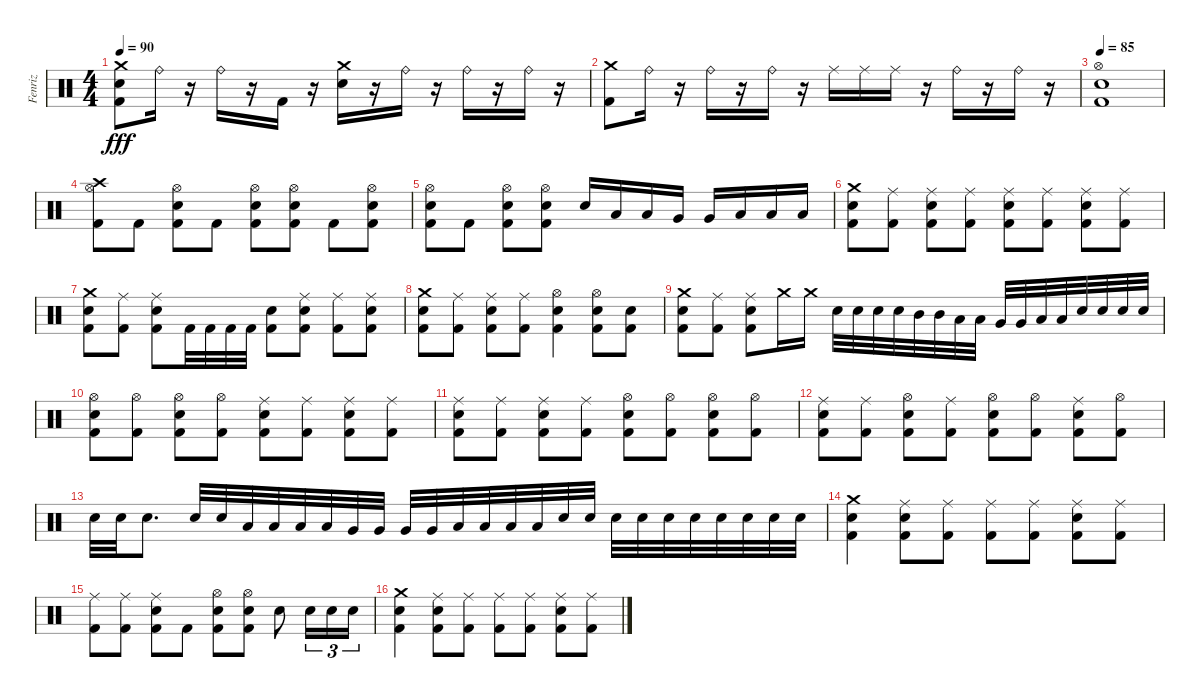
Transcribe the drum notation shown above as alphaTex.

\track ("Fenriz" "Fenriz") {instrument percussion}
\staff {score}
\articulation defaults
\ts (4 4)
\tempo 90
\clef neutral
\ks c
("Crash medium (hit)" "Snare (hit) 2" "Kick (hit) 2").8{dy fff} "Ride (bell)".16 r.16 "Ride (bell)".16 r.16 "Kick (hit) 2".16 r.16 ("Crash medium (hit)" "Electric Snare (hit)").16 r.16 "Ride (bell)".16 r.16 "Ride (bell)".16 r.16 "Ride (bell)".16 r.16 |
("Crash medium (hit)" "Kick (hit) 2").8 "Ride (bell)".16 r.16 "Ride (bell)".16 r.16 "Ride (bell)".16 r.16 "Ride (middle)".16 "Ride (middle)".16 "Ride (middle)".16 r.16 "Ride (bell)".16 r.16 "Ride (bell)".16 r.16 |
\tempo 85
("Hi-Hat (open)" "Electric Snare (hit)" "Kick (hit) 2").1 |
("Crash high (hit)" "Hi-Hat (open)" "Kick (hit) 2").8 "Kick (hit) 2".8 ("Hi-Hat (open)" "Electric Snare (hit)" "Kick (hit) 2").8 "Kick (hit) 2".8 ("Hi-Hat (open)" "Electric Snare (hit)" "Kick (hit) 2").8 ("Hi-Hat (open)" "Electric Snare (hit)" "Kick (hit) 2").8 "Kick (hit) 2".8 ("Hi-Hat (open)" "Electric Snare (hit)" "Kick (hit) 2").8 |
("Hi-Hat (open)" "Electric Snare (hit)" "Kick (hit) 2").8 "Kick (hit) 2".8 ("Hi-Hat (open)" "Electric Snare (hit)" "Kick (hit) 2").8 ("Hi-Hat (open)" "Electric Snare (hit)" "Kick (hit) 2").8 "Snare (hit) 2".16 "Low Tom (hit)".16 "Low Tom (hit)".16 "Very Low Tom (hit)".16 "Very Low Tom (hit)".16 "Low Floor Tom (hit)".16 "Low Floor Tom (hit)".16 "Low Floor Tom (hit)".16 |
("Crash medium (hit)" "Snare (hit) 2" "Kick (hit) 2").8 ("Ride (middle)" "Kick (hit) 2").8 ("Ride (middle)" "Snare (hit) 2" "Kick (hit) 2").8 ("Ride (middle)" "Kick (hit) 2").8 ("Ride (middle)" "Snare (hit) 2" "Kick (hit) 2").8 ("Ride (middle)" "Kick (hit) 2").8 ("Ride (middle)" "Snare (hit) 2" "Kick (hit) 2").8 ("Ride (middle)" "Kick (hit) 2").8 |
("Crash medium (hit)" "Snare (hit) 2" "Kick (hit) 2").8 ("Ride (middle)" "Kick (hit) 2").8 ("Ride (middle)" "Snare (hit) 2" "Kick (hit) 2").8 "Kick (hit) 2".32 "Kick (hit) 2".32 "Kick (hit) 2".32 "Kick (hit) 2".32 ("Snare (hit) 2" "Kick (hit) 2").8 ("Ride (middle)" "Snare (hit) 2" "Kick (hit) 2").8 ("Ride (middle)" "Kick (hit) 2").8 ("Ride (middle)" "Snare (hit) 2" "Kick (hit) 2").8 |
("Crash medium (hit)" "Snare (hit) 2" "Kick (hit) 2").8 ("Ride (middle)" "Kick (hit) 2").8 ("Ride (middle)" "Snare (hit) 2" "Kick (hit) 2").8 ("Ride (middle)" "Kick (hit) 2").8 ("Hi-Hat (open)" "Snare (hit) 2" "Kick (hit) 2").4 ("Hi-Hat (open)" "Snare (hit) 2" "Kick (hit) 2").8 ("Snare (hit) 2" "Kick (hit) 2").8 |
("Crash medium (hit)" "Snare (hit) 2" "Kick (hit) 2").8 ("Ride (middle)" "Kick (hit) 2").8 ("Ride (middle)" "Snare (hit) 2" "Kick (hit) 2").8 "Crash medium (hit)".16 "Crash medium (hit)".16 "Snare (hit) 2".32 "Snare (hit) 2".32 "Snare (hit) 2".32 "Snare (hit) 2".32 "Mid Tom (hit)".32 "Mid Tom (hit)".32 "Low Tom (hit)".32 "Low Tom (hit)".32 "Very Low Tom (hit)".32 "Very Low Tom (hit)".32 "Low Floor Tom (hit)".32 "Low Floor Tom (hit)".32 "Snare (hit) 2".32 "Snare (hit) 2".32 "Snare (hit) 2".32 "Snare (hit) 2".32 |
("Hi-Hat (open)" "Snare (hit) 2" "Kick (hit) 2").8 ("Hi-Hat (open)" "Kick (hit) 2").8 ("Hi-Hat (open)" "Snare (hit) 2" "Kick (hit) 2").8 ("Hi-Hat (open)" "Kick (hit) 2").8 ("Ride (middle)" "Snare (hit) 2" "Kick (hit) 2").8 ("Ride (middle)" "Kick (hit) 2").8 ("Ride (middle)" "Snare (hit) 2" "Kick (hit) 2").8 ("Ride (middle)" "Kick (hit) 2").8 |
("Ride (middle)" "Snare (hit) 2" "Kick (hit) 2").8 ("Ride (middle)" "Kick (hit) 2").8 ("Ride (middle)" "Snare (hit) 2" "Kick (hit) 2").8 ("Ride (middle)" "Kick (hit) 2").8 ("Hi-Hat (open)" "Snare (hit) 2" "Kick (hit) 2").8 ("Hi-Hat (open)" "Kick (hit) 2").8 ("Hi-Hat (open)" "Snare (hit) 2" "Kick (hit) 2").8 ("Hi-Hat (open)" "Kick (hit) 2").8 |
("Ride (middle)" "Snare (hit) 2" "Kick (hit) 2").8 ("Ride (middle)" "Kick (hit) 2").8 ("Hi-Hat (open)" "Snare (hit) 2" "Kick (hit) 2").8 ("Ride (middle)" "Kick (hit) 2").8 ("Hi-Hat (open)" "Snare (hit) 2" "Kick (hit) 2").8 ("Hi-Hat (open)" "Kick (hit) 2").8 ("Ride (middle)" "Snare (hit) 2" "Kick (hit) 2").8 ("Hi-Hat (open)" "Kick (hit) 2").8 |
"Snare (hit) 2".32 "Snare (hit) 2".32 "Snare (hit) 2".8{d} "Snare (hit) 2".32 "Snare (hit) 2".32 "Low Tom (hit)".32 "Low Tom (hit)".32 "Low Tom (hit)".32 "Low Tom (hit)".32 "Very Low Tom (hit)".32 "Very Low Tom (hit)".32 "Very Low Tom (hit)".32 "Very Low Tom (hit)".32 "Low Floor Tom (hit)".32 "Low Floor Tom (hit)".32 "Low Floor Tom (hit)".32 "Low Floor Tom (hit)".32 "Snare (hit) 2".32 "Snare (hit) 2".32 "Snare (hit) 2".32 "Snare (hit) 2".32 "Snare (hit) 2".32 "Snare (hit) 2".32 "Snare (hit) 2".32 "Snare (hit) 2".32 "Snare (hit) 2".32 "Snare (hit) 2".32 |
("Crash medium (hit)" "Snare (hit) 2" "Kick (hit) 2").4 ("Ride (middle)" "Snare (hit) 2" "Kick (hit) 2").8 ("Ride (middle)" "Kick (hit) 2").8 ("Ride (middle)" "Kick (hit) 2").8 ("Ride (middle)" "Kick (hit) 2").8 ("Ride (middle)" "Snare (hit) 2" "Kick (hit) 2").8 ("Ride (middle)" "Kick (hit) 2").8 |
("Ride (middle)" "Kick (hit) 2").8 ("Ride (middle)" "Kick (hit) 2").8 ("Ride (middle)" "Snare (hit) 2" "Kick (hit) 2").8 "Kick (hit) 2".8 ("Hi-Hat (open)" "Snare (hit) 2" "Kick (hit) 2").8 ("Hi-Hat (open)" "Snare (hit) 2" "Kick (hit) 2").8 "Snare (hit) 2".8 "Snare (hit) 2".16{tu (3 2)} "Snare (hit) 2".16{tu (3 2)} "Snare (hit) 2".16{tu (3 2)} |
("Crash medium (hit)" "Snare (hit) 2" "Kick (hit) 2").4 ("Ride (middle)" "Snare (hit) 2" "Kick (hit) 2").8 ("Ride (middle)" "Kick (hit) 2").8 ("Ride (middle)" "Kick (hit) 2").8 ("Ride (middle)" "Kick (hit) 2").8 ("Ride (middle)" "Snare (hit) 2" "Kick (hit) 2").8 ("Ride (middle)" "Kick (hit) 2").8
